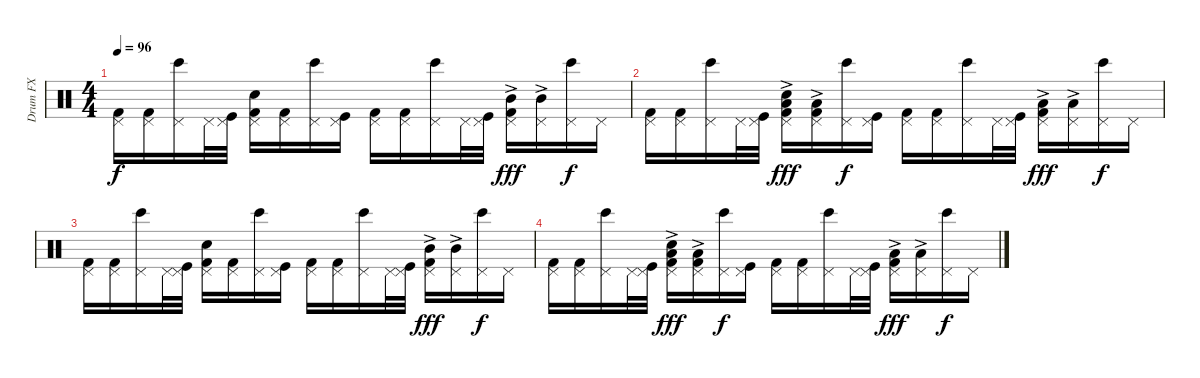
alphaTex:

\track ("Drum FX" "Drum FX") {instrument percussion}
\staff {score}
\articulation defaults
\ts (4 4)
\tempo 96
\clef neutral
\ks c
("Pedal Hi-Hat (hit)" "Kick (hit) 2").16{dy f} ("Pedal Hi-Hat (hit)" "Kick (hit) 2").16 ("Pedal Hi-Hat (hit)" "Bongo High (hit)").16 "Pedal Hi-Hat (hit)".32 ("Pedal Hi-Hat (hit)" "Kick (hit)").32 ("Pedal Hi-Hat (hit)" "Electric Snare (hit)" "Kick (hit) 2").16 ("Pedal Hi-Hat (hit)" "Kick (hit) 2").16 ("Pedal Hi-Hat (hit)" "Bongo High (hit)").16 ("Pedal Hi-Hat (hit)" "Kick (hit)").16 ("Pedal Hi-Hat (hit)" "Kick (hit) 2").16 ("Pedal Hi-Hat (hit)" "Kick (hit) 2").16 ("Pedal Hi-Hat (hit)" "Bongo High (hit)").16 "Pedal Hi-Hat (hit)".32 ("Pedal Hi-Hat (hit)" "Kick (hit)").32 ("Pedal Hi-Hat (hit)" "Mid Tom (hit)"{ac} "Kick (hit) 2").16{dy fff} ("Pedal Hi-Hat (hit)" "Mid Tom (hit)"{ac}).16 ("Pedal Hi-Hat (hit)" "Bongo High (hit)").16{dy f} "Pedal Hi-Hat (hit)".16 |
("Pedal Hi-Hat (hit)" "Kick (hit) 2").16 ("Pedal Hi-Hat (hit)" "Kick (hit) 2").16 ("Pedal Hi-Hat (hit)" "Bongo High (hit)").16 "Pedal Hi-Hat (hit)".32 ("Pedal Hi-Hat (hit)" "Kick (hit)").32 ("Pedal Hi-Hat (hit)" "Low Tom (hit)"{ac} "Electric Snare (hit)" "Kick (hit) 2").16{dy fff} ("Pedal Hi-Hat (hit)" "Low Tom (hit)"{ac} "Kick (hit) 2").16 ("Pedal Hi-Hat (hit)" "Bongo High (hit)").16{dy f} ("Pedal Hi-Hat (hit)" "Kick (hit)").16 ("Pedal Hi-Hat (hit)" "Kick (hit) 2").16 ("Pedal Hi-Hat (hit)" "Kick (hit) 2").16 ("Pedal Hi-Hat (hit)" "Bongo High (hit)").16 "Pedal Hi-Hat (hit)".32 ("Pedal Hi-Hat (hit)" "Kick (hit)").32 ("Pedal Hi-Hat (hit)" "Low Floor Tom (hit)"{ac} "Kick (hit) 2").16{dy fff} ("Pedal Hi-Hat (hit)" "Low Floor Tom (hit)"{ac}).16 ("Pedal Hi-Hat (hit)" "Bongo High (hit)").16{dy f} "Pedal Hi-Hat (hit)".16 |
("Pedal Hi-Hat (hit)" "Kick (hit) 2").16 ("Pedal Hi-Hat (hit)" "Kick (hit) 2").16 ("Pedal Hi-Hat (hit)" "Bongo High (hit)").16 "Pedal Hi-Hat (hit)".32 ("Pedal Hi-Hat (hit)" "Kick (hit)").32 ("Pedal Hi-Hat (hit)" "Electric Snare (hit)" "Kick (hit) 2").16 ("Pedal Hi-Hat (hit)" "Kick (hit) 2").16 ("Pedal Hi-Hat (hit)" "Bongo High (hit)").16 ("Pedal Hi-Hat (hit)" "Kick (hit)").16 ("Pedal Hi-Hat (hit)" "Kick (hit) 2").16 ("Pedal Hi-Hat (hit)" "Kick (hit) 2").16 ("Pedal Hi-Hat (hit)" "Bongo High (hit)").16 "Pedal Hi-Hat (hit)".32 ("Pedal Hi-Hat (hit)" "Kick (hit)").32 ("Pedal Hi-Hat (hit)" "Mid Tom (hit)"{ac} "Kick (hit) 2").16{dy fff} ("Pedal Hi-Hat (hit)" "Mid Tom (hit)"{ac}).16 ("Pedal Hi-Hat (hit)" "Bongo High (hit)").16{dy f} "Pedal Hi-Hat (hit)".16 |
("Pedal Hi-Hat (hit)" "Kick (hit) 2").16 ("Pedal Hi-Hat (hit)" "Kick (hit) 2").16 ("Pedal Hi-Hat (hit)" "Bongo High (hit)").16 "Pedal Hi-Hat (hit)".32 ("Pedal Hi-Hat (hit)" "Kick (hit)").32 ("Pedal Hi-Hat (hit)" "Low Tom (hit)"{ac} "Electric Snare (hit)" "Kick (hit) 2").16{dy fff} ("Pedal Hi-Hat (hit)" "Low Tom (hit)"{ac} "Kick (hit) 2").16 ("Pedal Hi-Hat (hit)" "Bongo High (hit)").16{dy f} ("Pedal Hi-Hat (hit)" "Kick (hit)").16 ("Pedal Hi-Hat (hit)" "Kick (hit) 2").16 ("Pedal Hi-Hat (hit)" "Kick (hit) 2").16 ("Pedal Hi-Hat (hit)" "Bongo High (hit)").16 "Pedal Hi-Hat (hit)".32 ("Pedal Hi-Hat (hit)" "Kick (hit)").32 ("Pedal Hi-Hat (hit)" "Low Floor Tom (hit)"{ac} "Kick (hit) 2").16{dy fff} ("Pedal Hi-Hat (hit)" "Low Floor Tom (hit)"{ac}).16 ("Pedal Hi-Hat (hit)" "Bongo High (hit)").16{dy f} "Pedal Hi-Hat (hit)".16
